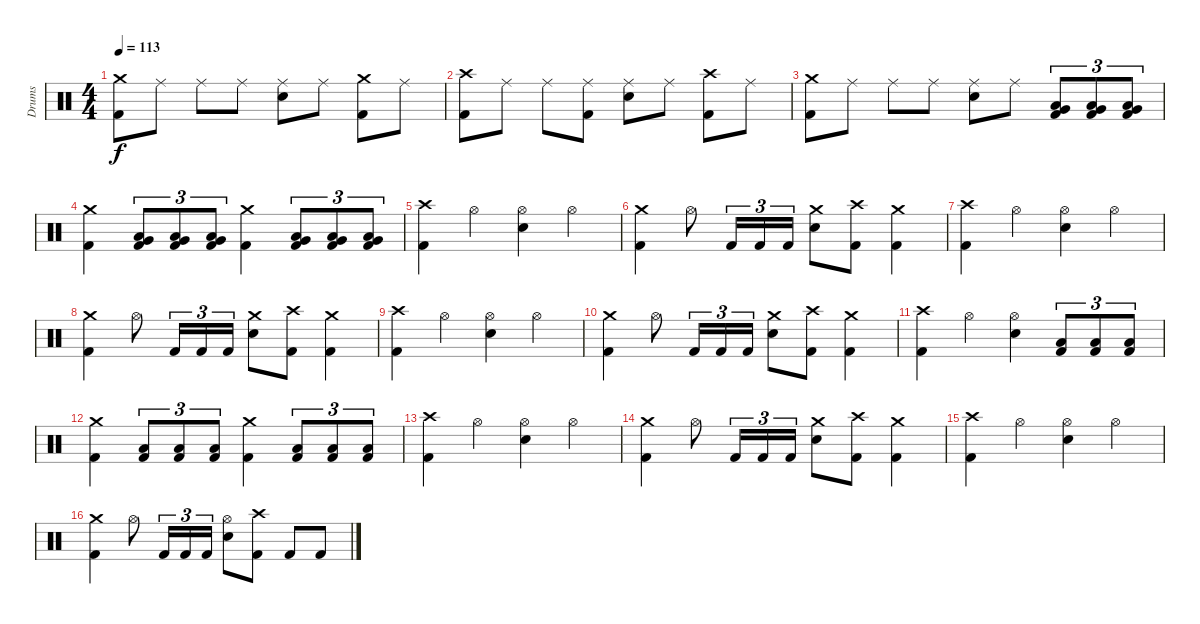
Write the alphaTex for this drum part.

\track ("Drums" "Drums") {instrument percussion}
\staff {score}
\articulation defaults
\ts (4 4)
\tempo 113
\clef neutral
\ks c
("Kick (hit) 2" "Crash medium (hit)").8{dy f} "Ride (middle)".8 "Ride (middle)".8 "Ride (middle)".8 ("Electric Snare (hit)" "Ride (middle)").8 "Ride (middle)".8 ("Kick (hit) 2" "Crash medium (hit)").8 "Ride (middle)".8 |
("Kick (hit) 2" "Crash high (hit)").8 "Ride (middle)".8 "Ride (middle)".8 ("Kick (hit) 2" "Ride (middle)").8 ("Electric Snare (hit)" "Ride (middle)").8 "Ride (middle)".8 ("Kick (hit) 2" "Crash high (hit)").8 "Ride (middle)".8 |
("Kick (hit) 2" "Crash medium (hit)").8 "Ride (middle)".8 "Ride (middle)".8 "Ride (middle)".8 ("Electric Snare (hit)" "Ride (middle)").8 "Ride (middle)".8 ("Kick (hit) 2" "Low Tom (hit)" "Very Low Tom (hit)").8{tu (3 2)} ("Kick (hit) 2" "Low Tom (hit)" "Very Low Tom (hit)").8{tu (3 2)} ("Kick (hit) 2" "Low Tom (hit)" "Very Low Tom (hit)").8{tu (3 2)} |
("Kick (hit) 2" "Crash medium (hit)").4 ("Kick (hit) 2" "Low Tom (hit)" "Very Low Tom (hit)").8{tu (3 2)} ("Kick (hit) 2" "Low Tom (hit)" "Very Low Tom (hit)").8{tu (3 2)} ("Kick (hit) 2" "Low Tom (hit)" "Very Low Tom (hit)").8{tu (3 2)} ("Kick (hit) 2" "Crash medium (hit)").4 ("Kick (hit) 2" "Low Tom (hit)" "Very Low Tom (hit)").8{tu (3 2)} ("Kick (hit) 2" "Low Tom (hit)" "Very Low Tom (hit)").8{tu (3 2)} ("Kick (hit) 2" "Low Tom (hit)" "Very Low Tom (hit)").8{tu (3 2)} |
\section ("" "")
("Kick (hit) 2" "Crash high (hit)").4 "Hi-Hat (open)".4 ("Electric Snare (hit)" "Hi-Hat (open)").4 "Hi-Hat (open)".4 |
("Kick (hit) 2" "Crash medium (hit)").4 "Hi-Hat (open)".8 "Kick (hit) 2".16{tu (3 2)} "Kick (hit) 2".16{tu (3 2)} "Kick (hit) 2".16{tu (3 2)} ("Electric Snare (hit)" "Crash medium (hit)").8 ("Kick (hit) 2" "Crash high (hit)").8 ("Kick (hit) 2" "Crash medium (hit)").4 |
("Kick (hit) 2" "Crash high (hit)").4 "Hi-Hat (open)".4 ("Electric Snare (hit)" "Hi-Hat (open)").4 "Hi-Hat (open)".4 |
("Kick (hit) 2" "Crash medium (hit)").4 "Hi-Hat (open)".8 "Kick (hit) 2".16{tu (3 2)} "Kick (hit) 2".16{tu (3 2)} "Kick (hit) 2".16{tu (3 2)} ("Electric Snare (hit)" "Crash medium (hit)").8 ("Kick (hit) 2" "Crash high (hit)").8 ("Kick (hit) 2" "Crash medium (hit)").4 |
("Kick (hit) 2" "Crash high (hit)").4 "Hi-Hat (open)".4 ("Electric Snare (hit)" "Hi-Hat (open)").4 "Hi-Hat (open)".4 |
("Kick (hit) 2" "Crash medium (hit)").4 "Hi-Hat (open)".8 "Kick (hit) 2".16{tu (3 2)} "Kick (hit) 2".16{tu (3 2)} "Kick (hit) 2".16{tu (3 2)} ("Electric Snare (hit)" "Crash medium (hit)").8 ("Kick (hit) 2" "Crash high (hit)").8 ("Kick (hit) 2" "Crash medium (hit)").4 |
("Kick (hit) 2" "Crash high (hit)").4 "Hi-Hat (open)".4 ("Electric Snare (hit)" "Hi-Hat (open)").4 ("Kick (hit) 2" "Low Tom (hit)").8{tu (3 2)} ("Kick (hit) 2" "Low Tom (hit)").8{tu (3 2)} ("Kick (hit) 2" "Low Tom (hit)").8{tu (3 2)} |
("Kick (hit) 2" "Crash medium (hit)").4 ("Kick (hit) 2" "Low Tom (hit)").8{tu (3 2)} ("Kick (hit) 2" "Low Tom (hit)").8{tu (3 2)} ("Kick (hit) 2" "Low Tom (hit)").8{tu (3 2)} ("Kick (hit) 2" "Crash medium (hit)").4 ("Kick (hit) 2" "Low Tom (hit)").8{tu (3 2)} ("Kick (hit) 2" "Low Tom (hit)").8{tu (3 2)} ("Kick (hit) 2" "Low Tom (hit)").8{tu (3 2)} |
("Kick (hit) 2" "Crash high (hit)").4 "Hi-Hat (open)".4 ("Electric Snare (hit)" "Hi-Hat (open)").4 "Hi-Hat (open)".4 |
("Kick (hit) 2" "Crash medium (hit)").4 "Hi-Hat (open)".8 "Kick (hit) 2".16{tu (3 2)} "Kick (hit) 2".16{tu (3 2)} "Kick (hit) 2".16{tu (3 2)} ("Electric Snare (hit)" "Crash medium (hit)").8 ("Kick (hit) 2" "Crash high (hit)").8 ("Kick (hit) 2" "Crash medium (hit)").4 |
("Kick (hit) 2" "Crash high (hit)").4 "Hi-Hat (open)".4 ("Electric Snare (hit)" "Hi-Hat (open)").4 "Hi-Hat (open)".4 |
("Kick (hit) 2" "Crash medium (hit)").4 "Hi-Hat (open)".8 "Kick (hit) 2".16{tu (3 2)} "Kick (hit) 2".16{tu (3 2)} "Kick (hit) 2".16{tu (3 2)} ("Electric Snare (hit)" "Hi-Hat (open)").8 ("Kick (hit) 2" "Crash high (hit)").8 "Kick (hit) 2".8 "Kick (hit) 2".8
